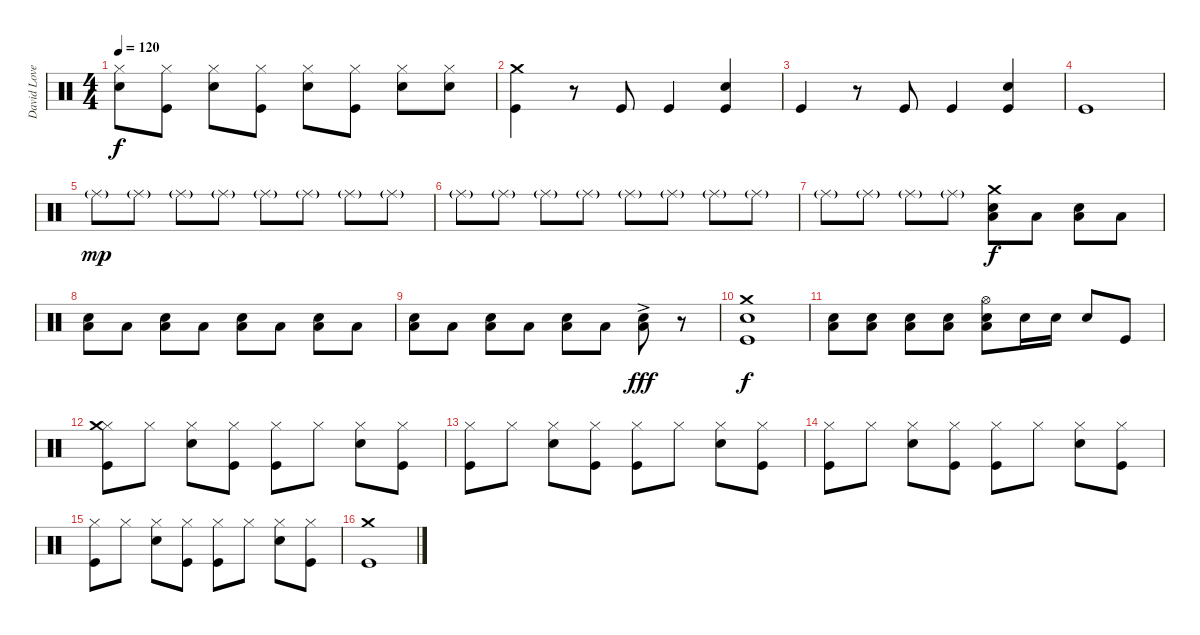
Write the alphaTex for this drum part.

\track ("David Lovering" "David Love") {instrument percussion}
\staff {score}
\articulation defaults
\ts (4 4)
\tempo 120
\clef neutral
\ks c
("Hi-Hat (closed)" "Snare (hit) 2").8{dy f} ("Hi-Hat (closed)" "Kick (hit)").8 ("Hi-Hat (closed)" "Snare (hit) 2").8 ("Hi-Hat (closed)" "Kick (hit)").8 ("Hi-Hat (closed)" "Snare (hit) 2").8 ("Hi-Hat (closed)" "Kick (hit)").8 ("Hi-Hat (closed)" "Snare (hit) 2").8 ("Hi-Hat (closed)" "Snare (hit) 2").8 |
("Crash medium (hit)" "Kick (hit)").4 r.8 "Kick (hit)".8 "Kick (hit)".4 ("Snare (hit) 2" "Kick (hit)").4 |
"Kick (hit)".4 r.8 "Kick (hit)".8 "Kick (hit)".4 ("Snare (hit) 2" "Kick (hit)").4 |
"Kick (hit)".1 |
"Ride (middle)"{g}.8{dy mp} "Ride (middle)"{g}.8 "Ride (middle)"{g}.8 "Ride (middle)"{g}.8 "Ride (middle)"{g}.8 "Ride (middle)"{g}.8 "Ride (middle)"{g}.8 "Ride (middle)"{g}.8 |
"Ride (middle)"{g}.8 "Ride (middle)"{g}.8 "Ride (middle)"{g}.8 "Ride (middle)"{g}.8 "Ride (middle)"{g}.8 "Ride (middle)"{g}.8 "Ride (middle)"{g}.8 "Ride (middle)"{g}.8 |
"Ride (middle)"{g}.8 "Ride (middle)"{g}.8 "Ride (middle)"{g}.8 "Ride (middle)"{g}.8 ("Crash medium (hit)" "Snare (hit) 2" "Low Floor Tom (hit)").8{dy f} "Low Floor Tom (hit)".8 ("Snare (hit) 2" "Low Floor Tom (hit)").8 "Low Floor Tom (hit)".8 |
("Snare (hit) 2" "Low Floor Tom (hit)").8 "Low Floor Tom (hit)".8 ("Snare (hit) 2" "Low Floor Tom (hit)").8 "Low Floor Tom (hit)".8 ("Snare (hit) 2" "Low Floor Tom (hit)").8 "Low Floor Tom (hit)".8 ("Snare (hit) 2" "Low Floor Tom (hit)").8 "Low Floor Tom (hit)".8 |
("Snare (hit) 2" "Low Floor Tom (hit)").8 "Low Floor Tom (hit)".8 ("Snare (hit) 2" "Low Floor Tom (hit)").8 "Low Floor Tom (hit)".8 ("Snare (hit) 2" "Low Floor Tom (hit)").8 "Low Floor Tom (hit)".8 ("Snare (hit) 2"{ac} "Low Floor Tom (hit)").8{dy fff} r.8 |
("Crash medium (hit)" "Snare (hit) 2" "Kick (hit)").1{dy f} |
("Snare (hit) 2" "Low Floor Tom (hit)").8 ("Snare (hit) 2" "Low Floor Tom (hit)").8 ("Snare (hit) 2" "Low Floor Tom (hit)").8 ("Snare (hit) 2" "Low Floor Tom (hit)").8 ("Hi-Hat (open)" "Snare (hit) 2" "Low Floor Tom (hit)").8 "Snare (hit) 2".16 "Snare (hit) 2".16 "Snare (hit) 2".8 "Kick (hit)".8 |
\section ("" "")
("Hi-Hat (closed)" "Crash medium (hit)" "Kick (hit)").8 "Hi-Hat (closed)".8 ("Hi-Hat (closed)" "Snare (hit) 2").8 ("Hi-Hat (closed)" "Kick (hit)").8 ("Hi-Hat (closed)" "Kick (hit)").8 "Hi-Hat (closed)".8 ("Hi-Hat (closed)" "Snare (hit) 2").8 ("Hi-Hat (closed)" "Kick (hit)").8 |
("Hi-Hat (closed)" "Kick (hit)").8 "Hi-Hat (closed)".8 ("Hi-Hat (closed)" "Snare (hit) 2").8 ("Hi-Hat (closed)" "Kick (hit)").8 ("Hi-Hat (closed)" "Kick (hit)").8 "Hi-Hat (closed)".8 ("Hi-Hat (closed)" "Snare (hit) 2").8 ("Hi-Hat (closed)" "Kick (hit)").8 |
("Hi-Hat (closed)" "Kick (hit)").8 "Hi-Hat (closed)".8 ("Hi-Hat (closed)" "Snare (hit) 2").8 ("Hi-Hat (closed)" "Kick (hit)").8 ("Hi-Hat (closed)" "Kick (hit)").8 "Hi-Hat (closed)".8 ("Hi-Hat (closed)" "Snare (hit) 2").8 ("Hi-Hat (closed)" "Kick (hit)").8 |
("Hi-Hat (closed)" "Kick (hit)").8 "Hi-Hat (closed)".8 ("Hi-Hat (closed)" "Snare (hit) 2").8 ("Hi-Hat (closed)" "Kick (hit)").8 ("Hi-Hat (closed)" "Kick (hit)").8 "Hi-Hat (closed)".8 ("Hi-Hat (closed)" "Snare (hit) 2").8 ("Hi-Hat (closed)" "Kick (hit)").8 |
("Crash medium (hit)" "Kick (hit)").1
